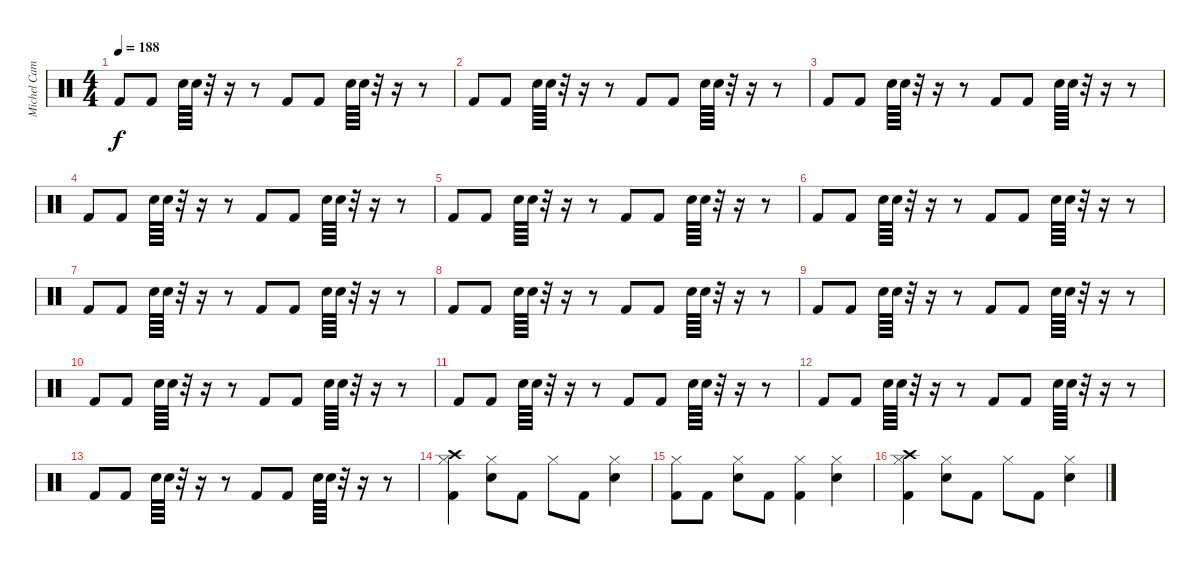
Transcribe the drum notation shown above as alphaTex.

\track ("Michel Camiade" "Michel Cam") {instrument percussion}
\staff {score}
\articulation defaults
\ts (4 4)
\tempo 188
\clef neutral
\ks c "Kick (hit) 2".8{dy f} "Kick (hit) 2".8 "Snare (hit) 2".64 "Snare (hit) 2".64
r.32 r.16 r.8 "Kick (hit) 2".8 "Kick (hit) 2".8 "Snare (hit) 2".64 "Snare (hit) 2".64 r.32 r.16 r.8 |
"Kick (hit) 2".8 "Kick (hit) 2".8 "Snare (hit) 2".64 "Snare (hit) 2".64 r.32 r.16 r.8 "Kick (hit) 2".8 "Kick (hit) 2".8 "Snare (hit) 2".64 "Snare (hit) 2".64 r.32 r.16 r.8 |
"Kick (hit) 2".8 "Kick (hit) 2".8 "Snare (hit) 2".64 "Snare (hit) 2".64 r.32 r.16 r.8 "Kick (hit) 2".8 "Kick (hit) 2".8 "Snare (hit) 2".64 "Snare (hit) 2".64 r.32 r.16 r.8 |
"Kick (hit) 2".8 "Kick (hit) 2".8 "Snare (hit) 2".64 "Snare (hit) 2".64 r.32 r.16 r.8 "Kick (hit) 2".8 "Kick (hit) 2".8 "Snare (hit) 2".64 "Snare (hit) 2".64 r.32 r.16 r.8 |
"Kick (hit) 2".8 "Kick (hit) 2".8 "Snare (hit) 2".64 "Snare (hit) 2".64 r.32 r.16 r.8 "Kick (hit) 2".8 "Kick (hit) 2".8 "Snare (hit) 2".64 "Snare (hit) 2".64 r.32 r.16 r.8 |
"Kick (hit) 2".8 "Kick (hit) 2".8 "Snare (hit) 2".64 "Snare (hit) 2".64 r.32 r.16 r.8 "Kick (hit) 2".8 "Kick (hit) 2".8 "Snare (hit) 2".64 "Snare (hit) 2".64 r.32 r.16 r.8 |
"Kick (hit) 2".8 "Kick (hit) 2".8 "Snare (hit) 2".64 "Snare (hit) 2".64 r.32 r.16 r.8 "Kick (hit) 2".8 "Kick (hit) 2".8 "Snare (hit) 2".64 "Snare (hit) 2".64 r.32 r.16 r.8 |
"Kick (hit) 2".8 "Kick (hit) 2".8 "Snare (hit) 2".64 "Snare (hit) 2".64 r.32 r.16 r.8 "Kick (hit) 2".8 "Kick (hit) 2".8 "Snare (hit) 2".64 "Snare (hit) 2".64 r.32 r.16 r.8 |
"Kick (hit) 2".8 "Kick (hit) 2".8 "Snare (hit) 2".64 "Snare (hit) 2".64 r.32 r.16 r.8 "Kick (hit) 2".8 "Kick (hit) 2".8 "Snare (hit) 2".64 "Snare (hit) 2".64 r.32 r.16 r.8 |
"Kick (hit) 2".8 "Kick (hit) 2".8 "Snare (hit) 2".64 "Snare (hit) 2".64 r.32 r.16 r.8 "Kick (hit) 2".8 "Kick (hit) 2".8 "Snare (hit) 2".64 "Snare (hit) 2".64 r.32 r.16 r.8 |
"Kick (hit) 2".8 "Kick (hit) 2".8 "Snare (hit) 2".64 "Snare (hit) 2".64 r.32 r.16 r.8 "Kick (hit) 2".8 "Kick (hit) 2".8 "Snare (hit) 2".64 "Snare (hit) 2".64 r.32 r.16 r.8 |
"Kick (hit) 2".8 "Kick (hit) 2".8 "Snare (hit) 2".64 "Snare (hit) 2".64 r.32 r.16 r.8 "Kick (hit) 2".8 "Kick (hit) 2".8 "Snare (hit) 2".64 "Snare (hit) 2".64 r.32 r.16 r.8 |
"Kick (hit) 2".8 "Kick (hit) 2".8 "Snare (hit) 2".64 "Snare (hit) 2".64 r.32 r.16 r.8 "Kick (hit) 2".8 "Kick (hit) 2".8 "Snare (hit) 2".64 "Snare (hit) 2".64 r.32 r.16 r.8 |
("Crash high (hit)" "Hi-Hat (closed)" "Kick (hit) 2").4 ("Hi-Hat (closed)" "Snare (hit) 2").8 "Kick (hit) 2".8 "Hi-Hat (closed)".8 "Kick (hit) 2".8 ("Hi-Hat (closed)" "Snare (hit) 2").4 |
("Hi-Hat (closed)" "Kick (hit) 2").8 "Kick (hit) 2".8 ("Hi-Hat (closed)" "Snare (hit) 2").8 "Kick (hit) 2".8 ("Hi-Hat (closed)" "Kick (hit) 2").4 ("Hi-Hat (closed)" "Snare (hit) 2").4 |
("Crash high (hit)" "Hi-Hat (closed)" "Kick (hit) 2").4 ("Hi-Hat (closed)" "Snare (hit) 2").8 "Kick (hit) 2".8 "Hi-Hat (closed)".8 "Kick (hit) 2".8 ("Hi-Hat (closed)" "Snare (hit) 2").4
